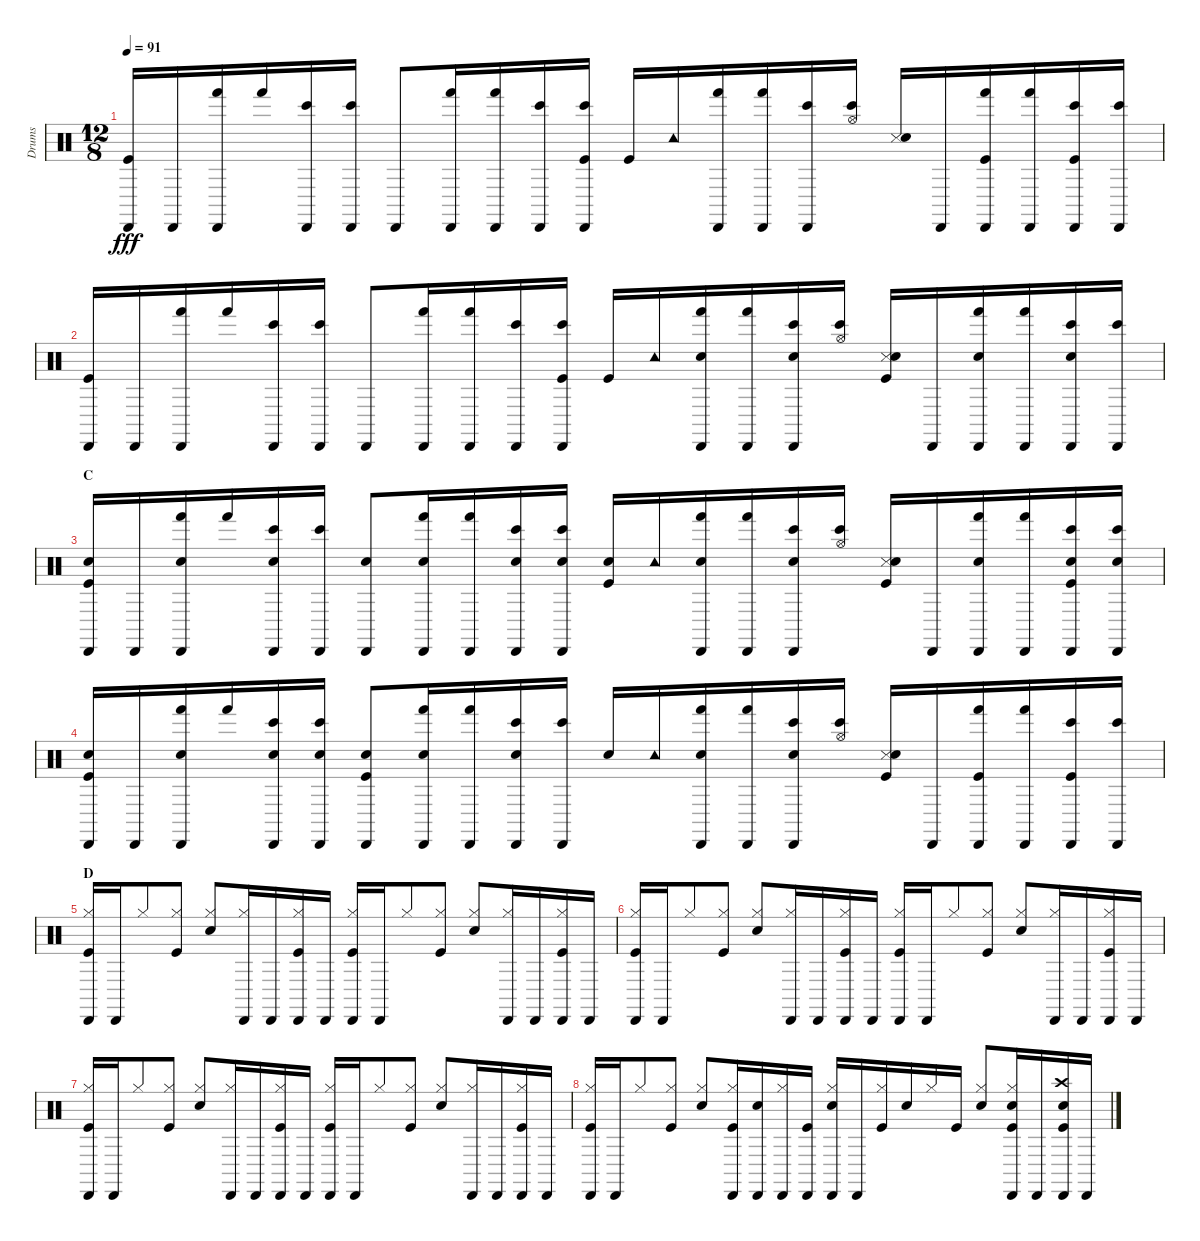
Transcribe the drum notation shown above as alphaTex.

\track ("Drums" "Drums") {instrument percussion}
\staff {score}
\articulation defaults
\ts (12 8)
\tempo 91
\clef neutral
\ks c
("Cabasa (hit)" "Kick (hit)").16{dy fff} "Cabasa (hit)".16 ("Cabasa (hit)" "Hand (hit)").16 "Hand (hit)".16 ("Cabasa (hit)" "Bongo High (hit)").16 ("Cabasa (hit)" "Bongo High (hit)").16 "Cabasa (hit)".8 ("Cabasa (hit)" "Hand (hit)").16 ("Cabasa (hit)" "Hand (hit)").16 ("Cabasa (hit)" "Bongo High (hit)").16 ("Cabasa (hit)" "Bongo High (hit)" "Kick (hit)").16 "Kick (hit)".16 "Tambourine (hit)".16 ("Cabasa (hit)" "Hand (hit)").16 ("Cabasa (hit)" "Hand (hit)").16 ("Cabasa (hit)" "Bongo High (hit)").16 ("Hi-Hat (open)" "Bongo High (hit)").16 ("Snare (side stick) 3" "Electric Snare (hit)").16 "Cabasa (hit)".16 ("Cabasa (hit)" "Hand (hit)" "Kick (hit)").16 ("Cabasa (hit)" "Hand (hit)").16 ("Cabasa (hit)" "Bongo High (hit)" "Kick (hit)").16 ("Cabasa (hit)" "Bongo High (hit)").16 |
("Cabasa (hit)" "Kick (hit)").16 "Cabasa (hit)".16 ("Cabasa (hit)" "Hand (hit)").16 "Hand (hit)".16 ("Cabasa (hit)" "Bongo High (hit)").16 ("Cabasa (hit)" "Bongo High (hit)").16 "Cabasa (hit)".8 ("Cabasa (hit)" "Hand (hit)").16 ("Cabasa (hit)" "Hand (hit)").16 ("Cabasa (hit)" "Bongo High (hit)").16 ("Cabasa (hit)" "Bongo High (hit)" "Kick (hit)").16 "Kick (hit)".16 "Tambourine (hit)".16 ("Cabasa (hit)" "Hand (hit)" "Snare (hit) 2").16 ("Cabasa (hit)" "Hand (hit)").16 ("Cabasa (hit)" "Bongo High (hit)" "Snare (hit) 2").16 ("Hi-Hat (open)" "Bongo High (hit)").16 ("Snare (side stick) 3" "Snare (hit) 2" "Kick (hit)").16 "Cabasa (hit)".16 ("Cabasa (hit)" "Hand (hit)" "Snare (hit) 2").16 ("Cabasa (hit)" "Hand (hit)").16 ("Cabasa (hit)" "Bongo High (hit)" "Snare (hit) 2").16 ("Cabasa (hit)" "Bongo High (hit)").16 |
\section ("" "C")
("Cabasa (hit)" "Snare (hit) 2" "Kick (hit)").16 "Cabasa (hit)".16 ("Cabasa (hit)" "Hand (hit)" "Snare (hit) 2").16 "Hand (hit)".16 ("Cabasa (hit)" "Bongo High (hit)" "Snare (hit) 2").16 ("Cabasa (hit)" "Bongo High (hit)").16 ("Cabasa (hit)" "Snare (hit) 2").8 ("Cabasa (hit)" "Hand (hit)" "Snare (hit) 2").16 ("Cabasa (hit)" "Hand (hit)").16 ("Cabasa (hit)" "Bongo High (hit)" "Snare (hit) 2").16 ("Cabasa (hit)" "Bongo High (hit)" "Snare (hit) 2").16 ("Snare (hit) 2" "Kick (hit)").16 "Tambourine (hit)".16 ("Cabasa (hit)" "Hand (hit)" "Snare (hit) 2").16 ("Cabasa (hit)" "Hand (hit)").16 ("Cabasa (hit)" "Bongo High (hit)" "Snare (hit) 2").16 ("Hi-Hat (open)" "Bongo High (hit)").16 ("Snare (side stick) 3" "Snare (hit) 2" "Kick (hit)").16 "Cabasa (hit)".16 ("Cabasa (hit)" "Hand (hit)" "Snare (hit) 2").16 ("Cabasa (hit)" "Hand (hit)").16 ("Cabasa (hit)" "Bongo High (hit)" "Snare (hit) 2" "Kick (hit)").16 ("Cabasa (hit)" "Bongo High (hit)" "Snare (hit) 2").16 |
("Cabasa (hit)" "Snare (hit) 2" "Kick (hit)").16 "Cabasa (hit)".16 ("Cabasa (hit)" "Hand (hit)" "Snare (hit) 2").16 "Hand (hit)".16 ("Cabasa (hit)" "Bongo High (hit)" "Snare (hit) 2").16 ("Cabasa (hit)" "Bongo High (hit)" "Snare (hit) 2").16 ("Cabasa (hit)" "Snare (hit) 2" "Kick (hit)").8 ("Cabasa (hit)" "Hand (hit)" "Snare (hit) 2").16 ("Cabasa (hit)" "Hand (hit)").16 ("Cabasa (hit)" "Bongo High (hit)" "Snare (hit) 2").16 ("Cabasa (hit)" "Bongo High (hit)").16 "Snare (hit) 2".16 "Tambourine (hit)".16 ("Cabasa (hit)" "Hand (hit)" "Snare (hit) 2").16 ("Cabasa (hit)" "Hand (hit)").16 ("Cabasa (hit)" "Bongo High (hit)" "Snare (hit) 2").16 ("Hi-Hat (open)" "Bongo High (hit)").16 ("Snare (side stick) 3" "Electric Snare (hit)" "Kick (hit)").16 "Cabasa (hit)".16 ("Cabasa (hit)" "Hand (hit)" "Kick (hit)").16 ("Cabasa (hit)" "Hand (hit)").16 ("Cabasa (hit)" "Bongo High (hit)" "Kick (hit)").16 ("Cabasa (hit)" "Bongo High (hit)").16 |
\section ("" "D")
("Hi-Hat (closed)" "Cabasa (hit)" "Kick (hit)").16 "Cabasa (hit)".16 "Hi-Hat (closed)".8 ("Hi-Hat (closed)" "Kick (hit)").8 ("Hi-Hat (closed)" "Snare (hit) 2").8 ("Hi-Hat (closed)" "Cabasa (hit)").16 "Cabasa (hit)".16 ("Hi-Hat (closed)" "Cabasa (hit)" "Kick (hit)").16 "Cabasa (hit)".16 ("Hi-Hat (closed)" "Cabasa (hit)" "Kick (hit)").16 "Cabasa (hit)".16 "Hi-Hat (closed)".8 ("Hi-Hat (closed)" "Kick (hit)").8 ("Hi-Hat (closed)" "Snare (hit) 2").8 ("Hi-Hat (closed)" "Cabasa (hit)").16 "Cabasa (hit)".16 ("Hi-Hat (closed)" "Cabasa (hit)" "Kick (hit)").16 "Cabasa (hit)".16 |
("Hi-Hat (closed)" "Cabasa (hit)" "Kick (hit)").16 "Cabasa (hit)".16 "Hi-Hat (closed)".8 ("Hi-Hat (closed)" "Kick (hit)").8 ("Hi-Hat (closed)" "Snare (hit) 2").8 ("Hi-Hat (closed)" "Cabasa (hit)").16 "Cabasa (hit)".16 ("Hi-Hat (closed)" "Cabasa (hit)" "Kick (hit)").16 "Cabasa (hit)".16 ("Hi-Hat (closed)" "Cabasa (hit)" "Kick (hit)").16 "Cabasa (hit)".16 "Hi-Hat (closed)".8 ("Hi-Hat (closed)" "Kick (hit)").8 ("Hi-Hat (closed)" "Snare (hit) 2").8 ("Hi-Hat (closed)" "Cabasa (hit)").16 "Cabasa (hit)".16 ("Hi-Hat (closed)" "Cabasa (hit)" "Kick (hit)").16 "Cabasa (hit)".16 |
("Hi-Hat (closed)" "Cabasa (hit)" "Kick (hit)").16 "Cabasa (hit)".16 "Hi-Hat (closed)".8 ("Hi-Hat (closed)" "Kick (hit)").8 ("Hi-Hat (closed)" "Snare (hit) 2").8 ("Hi-Hat (closed)" "Cabasa (hit)").16 "Cabasa (hit)".16 ("Hi-Hat (closed)" "Cabasa (hit)" "Kick (hit)").16 "Cabasa (hit)".16 ("Hi-Hat (closed)" "Cabasa (hit)" "Kick (hit)").16 "Cabasa (hit)".16 "Hi-Hat (closed)".8 ("Hi-Hat (closed)" "Kick (hit)").8 ("Hi-Hat (closed)" "Snare (hit) 2").8 ("Hi-Hat (closed)" "Cabasa (hit)").16 "Cabasa (hit)".16 ("Hi-Hat (closed)" "Cabasa (hit)" "Kick (hit)").16 "Cabasa (hit)".16 |
("Hi-Hat (closed)" "Cabasa (hit)" "Kick (hit)").16 "Cabasa (hit)".16 "Hi-Hat (closed)".8 ("Hi-Hat (closed)" "Kick (hit)").8 ("Hi-Hat (closed)" "Snare (hit) 2").8 ("Hi-Hat (closed)" "Cabasa (hit)" "Kick (hit)").16 ("Cabasa (hit)" "Snare (hit) 2").16 ("Hi-Hat (closed)" "Cabasa (hit)").16 ("Cabasa (hit)" "Kick (hit)").16 ("Hi-Hat (closed)" "Cabasa (hit)" "Snare (hit) 2").16 "Cabasa (hit)".16 ("Hi-Hat (closed)" "Kick (hit)").16 "Snare (hit) 2".16 "Hi-Hat (closed)".16 "Kick (hit)".16 ("Hi-Hat (closed)" "Snare (hit) 2").8 ("Hi-Hat (closed)" "Cabasa (hit)" "Snare (hit) 2" "Kick (hit)").16 "Cabasa (hit)".16 ("Crash high (hit)" "Cabasa (hit)" "Snare (hit) 2" "Kick (hit)").16 "Cabasa (hit)".16
